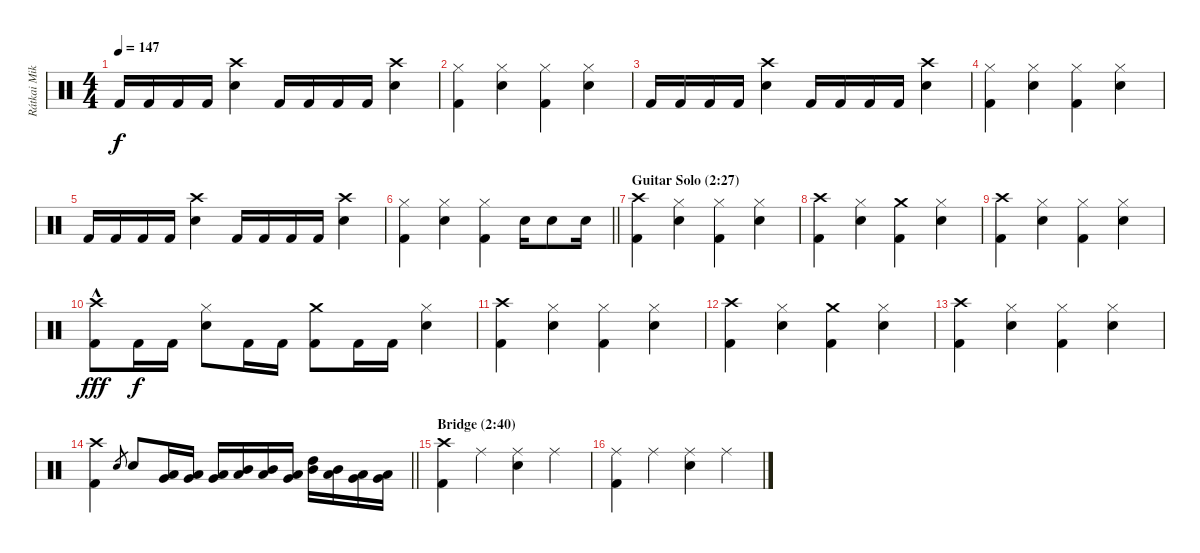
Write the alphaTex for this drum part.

\track ("Rátkai Miklós [Drums]" "Rátkai Mik") {instrument percussion}
\staff {score}
\articulation defaults
\ts (4 4)
\tempo 147
\clef neutral
\ks c "Kick (hit) 2".16{dy f} "Kick (hit) 2".16 "Kick (hit) 2".16 "Kick (hit) 2".16
("Crash high (hit)" "Electric Snare (hit)").4 "Kick (hit) 2".16 "Kick (hit) 2".16 "Kick (hit) 2".16 "Kick (hit) 2".16 ("Crash high (hit)" "Electric Snare (hit)").4 |
("Hi-Hat (closed)" "Kick (hit) 2").4 ("Hi-Hat (closed)" "Electric Snare (hit)").4 ("Hi-Hat (closed)" "Kick (hit) 2").4 ("Hi-Hat (closed)" "Electric Snare (hit)").4 |
"Kick (hit) 2".16 "Kick (hit) 2".16 "Kick (hit) 2".16 "Kick (hit) 2".16 ("Crash high (hit)" "Electric Snare (hit)").4 "Kick (hit) 2".16 "Kick (hit) 2".16 "Kick (hit) 2".16 "Kick (hit) 2".16 ("Crash high (hit)" "Electric Snare (hit)").4 |
("Hi-Hat (closed)" "Kick (hit) 2").4 ("Hi-Hat (closed)" "Electric Snare (hit)").4 ("Hi-Hat (closed)" "Kick (hit) 2").4 ("Hi-Hat (closed)" "Electric Snare (hit)").4 |
"Kick (hit) 2".16 "Kick (hit) 2".16 "Kick (hit) 2".16 "Kick (hit) 2".16 ("Crash high (hit)" "Electric Snare (hit)").4 "Kick (hit) 2".16 "Kick (hit) 2".16 "Kick (hit) 2".16 "Kick (hit) 2".16 ("Crash high (hit)" "Electric Snare (hit)").4 |
\barLineRight lightlight
("Hi-Hat (closed)" "Kick (hit) 2").4 ("Hi-Hat (closed)" "Electric Snare (hit)").4 ("Hi-Hat (closed)" "Kick (hit) 2").4 "Electric Snare (hit)".16 "Electric Snare (hit)".8 "Electric Snare (hit)".16 |
\section ("" "Guitar Solo (2:27)")
("Crash high (hit)" "Kick (hit) 2").4 ("Hi-Hat (closed)" "Electric Snare (hit)").4 ("Hi-Hat (closed)" "Kick (hit) 2").4 ("Hi-Hat (closed)" "Electric Snare (hit)").4 |
("Crash high (hit)" "Kick (hit) 2").4 ("Hi-Hat (closed)" "Electric Snare (hit)").4 ("Crash medium (hit)" "Kick (hit) 2").4 ("Hi-Hat (closed)" "Electric Snare (hit)").4 |
("Crash high (hit)" "Kick (hit) 2").4 ("Hi-Hat (closed)" "Electric Snare (hit)").4 ("Hi-Hat (closed)" "Kick (hit) 2").4 ("Hi-Hat (closed)" "Electric Snare (hit)").4 |
("Crash high (hit)" "Kick (hit) 2"{hac}).8{dy fff} "Kick (hit) 2".16{dy f} "Kick (hit) 2".16 ("Hi-Hat (closed)" "Electric Snare (hit)").8 "Kick (hit) 2".16 "Kick (hit) 2".16 ("Crash medium (hit)" "Kick (hit) 2").8 "Kick (hit) 2".16 "Kick (hit) 2".16 ("Hi-Hat (closed)" "Electric Snare (hit)").4 |
("Crash high (hit)" "Kick (hit) 2").4 ("Hi-Hat (closed)" "Electric Snare (hit)").4 ("Hi-Hat (closed)" "Kick (hit) 2").4 ("Hi-Hat (closed)" "Electric Snare (hit)").4 |
("Crash high (hit)" "Kick (hit) 2").4 ("Hi-Hat (closed)" "Electric Snare (hit)").4 ("Crash medium (hit)" "Kick (hit) 2").4 ("Hi-Hat (closed)" "Electric Snare (hit)").4 |
("Crash high (hit)" "Kick (hit) 2").4 ("Hi-Hat (closed)" "Electric Snare (hit)").4 ("Hi-Hat (closed)" "Kick (hit) 2").4 ("Hi-Hat (closed)" "Electric Snare (hit)").4 |
\barLineRight lightlight
("Crash high (hit)" "Kick (hit) 2").4 "Snare (hit) 2".8{gr} "Electric Snare (hit)".8 ("Very Low Tom (hit)" "Low Floor Tom (hit)").16 ("Very Low Tom (hit)" "Low Floor Tom (hit)").16 ("Low Tom (hit)" "Very Low Tom (hit)").16 ("Mid Tom (hit)" "Low Tom (hit)").16 ("Mid Tom (hit)" "Low Tom (hit)").16 ("Low Tom (hit)" "Very Low Tom (hit)").16 ("High Tom (hit)" "Mid Tom (hit)").16 ("Mid Tom (hit)" "Low Tom (hit)").16 ("Low Tom (hit)" "Very Low Tom (hit)").16 ("Very Low Tom (hit)" "Low Floor Tom (hit)").16 |
\section ("" "Bridge (2:40)")
("Crash high (hit)" "Kick (hit) 2").4 "Ride (middle)".4 ("Ride (middle)" "Electric Snare (hit)").4 "Ride (middle)".4 |
("Ride (middle)" "Kick (hit) 2").4 "Ride (middle)".4 ("Ride (middle)" "Electric Snare (hit)").4 "Ride (middle)".4
